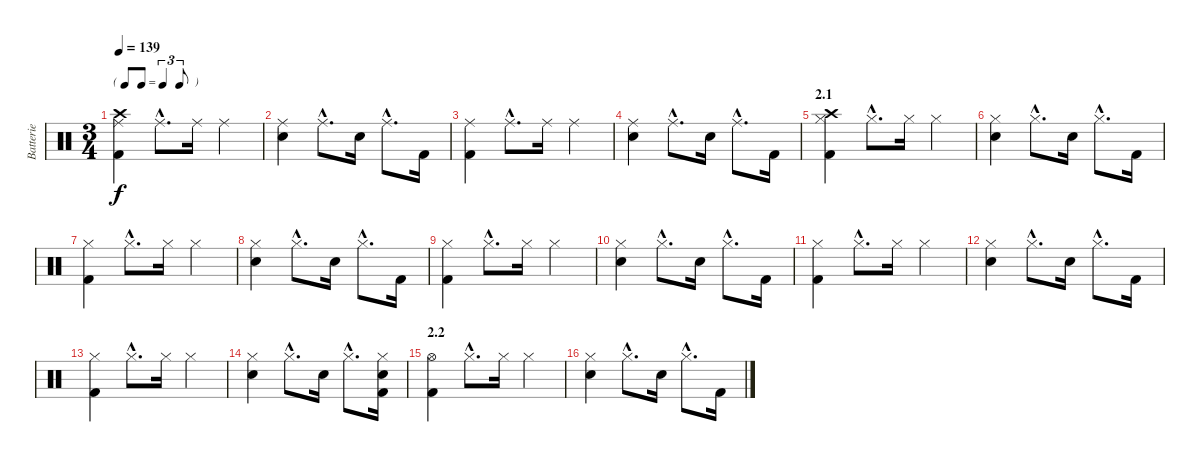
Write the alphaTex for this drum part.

\track ("Batterie" "Batterie") {instrument percussion}
\staff {score}
\articulation defaults
\ts (3 4)
\tf triplet8th
\tempo 139
\clef neutral
\ks c
("Crash high (hit)" "Ride (middle)" "Kick (hit) 2").4{dy f} "Ride (middle)"{hac}.8{d} "Ride (middle)".16 "Ride (middle)".4 |
("Ride (middle)" "Snare (hit) 2").4 "Ride (middle)"{hac}.8{d} "Snare (hit) 2".16 "Ride (middle)"{hac}.8{d} "Kick (hit) 2".16 |
("Ride (middle)" "Kick (hit) 2").4 "Ride (middle)"{hac}.8{d} "Ride (middle)".16 "Ride (middle)".4 |
("Ride (middle)" "Snare (hit) 2").4 "Ride (middle)"{hac}.8{d} "Snare (hit) 2".16 "Ride (middle)"{hac}.8{d} "Kick (hit) 2".16 |
\section ("" "2.1")
("Crash high (hit)" "Hi-Hat (closed)" "Kick (hit) 2").4 "Hi-Hat (closed)"{hac}.8{d} "Hi-Hat (closed)".16 "Hi-Hat (closed)".4 |
("Hi-Hat (closed)" "Snare (hit) 2").4 "Hi-Hat (closed)"{hac}.8{d} "Snare (hit) 2".16 "Hi-Hat (closed)"{hac}.8{d} "Kick (hit) 2".16 |
("Hi-Hat (closed)" "Kick (hit) 2").4 "Hi-Hat (closed)"{hac}.8{d} "Hi-Hat (closed)".16 "Hi-Hat (closed)".4 |
("Hi-Hat (closed)" "Snare (hit) 2").4 "Hi-Hat (closed)"{hac}.8{d} "Snare (hit) 2".16 "Hi-Hat (closed)"{hac}.8{d} "Kick (hit) 2".16 |
("Hi-Hat (closed)" "Kick (hit) 2").4 "Hi-Hat (closed)"{hac}.8{d} "Hi-Hat (closed)".16 "Hi-Hat (closed)".4 |
("Hi-Hat (closed)" "Snare (hit) 2").4 "Hi-Hat (closed)"{hac}.8{d} "Snare (hit) 2".16 "Hi-Hat (closed)"{hac}.8{d} "Kick (hit) 2".16 |
("Hi-Hat (closed)" "Kick (hit) 2").4 "Hi-Hat (closed)"{hac}.8{d} "Hi-Hat (closed)".16 "Hi-Hat (closed)".4 |
("Hi-Hat (closed)" "Snare (hit) 2").4 "Hi-Hat (closed)"{hac}.8{d} "Snare (hit) 2".16 "Hi-Hat (closed)"{hac}.8{d} "Kick (hit) 2".16 |
("Hi-Hat (closed)" "Kick (hit) 2").4 "Hi-Hat (closed)"{hac}.8{d} "Hi-Hat (closed)".16 "Hi-Hat (closed)".4 |
("Hi-Hat (closed)" "Snare (hit) 2").4 "Hi-Hat (closed)"{hac}.8{d} "Snare (hit) 2".16 "Hi-Hat (closed)"{hac}.8{d} ("Snare (hit) 2" "Hi-Hat (closed)" "Kick (hit) 2").16 |
\section ("" "2.2")
("Hi-Hat (open)" "Kick (hit) 2").4 "Hi-Hat (closed)"{hac}.8{d} "Hi-Hat (closed)".16 "Hi-Hat (closed)".4 |
("Hi-Hat (closed)" "Snare (hit) 2").4 "Hi-Hat (closed)"{hac}.8{d} "Snare (hit) 2".16 "Hi-Hat (closed)"{hac}.8{d} "Kick (hit) 2".16
